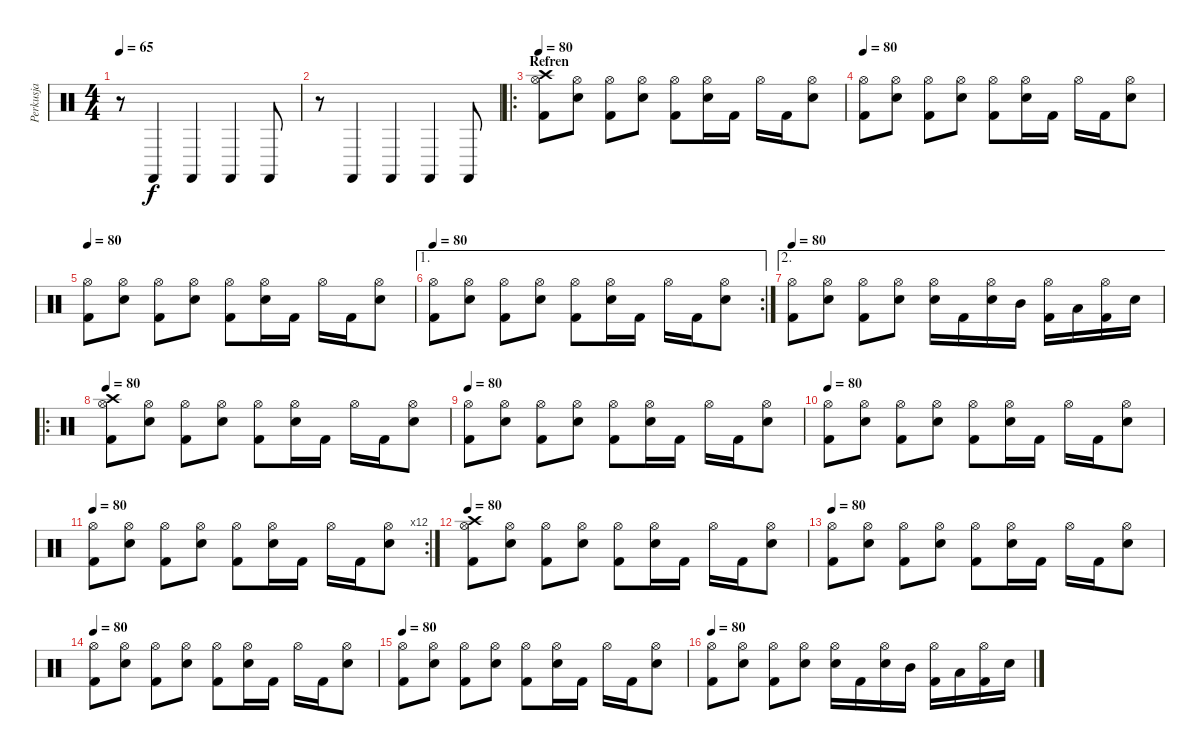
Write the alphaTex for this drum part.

\track ("Perkusja" "Perkusja") {instrument percussion}
\staff {score}
\articulation defaults
\ts (4 4)
\tempo 65
\clef neutral
\ks c
r.8{dy f} "Castanets (hit)".4 "Castanets (hit)".4 "Castanets (hit)".4 "Castanets (hit)".8 |
r.8 "Castanets (hit)".4 "Castanets (hit)".4 "Castanets (hit)".4 "Castanets (hit)".8 |
\ro
\section ("" "Refren")
\tempo 80
("Hi-Hat (open)" "Kick (hit) 2" "Crash high (hit)").8 ("Hi-Hat (open)" "Electric Snare (hit)").8 ("Hi-Hat (open)" "Kick (hit) 2").8 ("Hi-Hat (open)" "Electric Snare (hit)").8 ("Hi-Hat (open)" "Kick (hit) 2").8 ("Hi-Hat (open)" "Electric Snare (hit)").16 "Kick (hit) 2".16 "Hi-Hat (open)".16 "Kick (hit) 2".16 ("Hi-Hat (open)" "Electric Snare (hit)").8 |
\tempo 80
("Hi-Hat (open)" "Kick (hit) 2").8 ("Hi-Hat (open)" "Electric Snare (hit)").8 ("Hi-Hat (open)" "Kick (hit) 2").8 ("Hi-Hat (open)" "Electric Snare (hit)").8 ("Hi-Hat (open)" "Kick (hit) 2").8 ("Hi-Hat (open)" "Electric Snare (hit)").16 "Kick (hit) 2".16 "Hi-Hat (open)".16 "Kick (hit) 2".16 ("Hi-Hat (open)" "Electric Snare (hit)").8 |
\tempo 80
("Hi-Hat (open)" "Kick (hit) 2").8 ("Hi-Hat (open)" "Electric Snare (hit)").8 ("Hi-Hat (open)" "Kick (hit) 2").8 ("Hi-Hat (open)" "Electric Snare (hit)").8 ("Hi-Hat (open)" "Kick (hit) 2").8 ("Hi-Hat (open)" "Electric Snare (hit)").16 "Kick (hit) 2".16 "Hi-Hat (open)".16 "Kick (hit) 2".16 ("Hi-Hat (open)" "Electric Snare (hit)").8 |
\ae 1
\rc 2
\tempo 80
("Hi-Hat (open)" "Kick (hit) 2").8 ("Hi-Hat (open)" "Electric Snare (hit)").8 ("Hi-Hat (open)" "Kick (hit) 2").8 ("Hi-Hat (open)" "Electric Snare (hit)").8 ("Hi-Hat (open)" "Kick (hit) 2").8 ("Hi-Hat (open)" "Electric Snare (hit)").16 "Kick (hit) 2".16 "Hi-Hat (open)".16 "Kick (hit) 2".16 ("Hi-Hat (open)" "Electric Snare (hit)").8 |
\ae 2
\tempo 80
("Hi-Hat (open)" "Kick (hit) 2").8 ("Hi-Hat (open)" "Electric Snare (hit)").8 ("Hi-Hat (open)" "Kick (hit) 2").8 ("Hi-Hat (open)" "Electric Snare (hit)").8 ("Hi-Hat (open)" "Electric Snare (hit)").16 "Kick (hit) 2".16 ("Hi-Hat (open)" "Electric Snare (hit)").16 "Mid Tom (hit)".16 ("Hi-Hat (open)" "Kick (hit) 2").16 "Low Tom (hit)".16 ("Hi-Hat (open)" "Kick (hit) 2").16 "Electric Snare (hit)".16 |
\ro
\tempo 80
("Hi-Hat (open)" "Kick (hit) 2" "Crash high (hit)").8 ("Hi-Hat (open)" "Electric Snare (hit)").8 ("Hi-Hat (open)" "Kick (hit) 2").8 ("Hi-Hat (open)" "Electric Snare (hit)").8 ("Hi-Hat (open)" "Kick (hit) 2").8 ("Hi-Hat (open)" "Electric Snare (hit)").16 "Kick (hit) 2".16 "Hi-Hat (open)".16 "Kick (hit) 2".16 ("Hi-Hat (open)" "Electric Snare (hit)").8 |
\tempo 80
("Hi-Hat (open)" "Kick (hit) 2").8 ("Hi-Hat (open)" "Electric Snare (hit)").8 ("Hi-Hat (open)" "Kick (hit) 2").8 ("Hi-Hat (open)" "Electric Snare (hit)").8 ("Hi-Hat (open)" "Kick (hit) 2").8 ("Hi-Hat (open)" "Electric Snare (hit)").16 "Kick (hit) 2".16 "Hi-Hat (open)".16 "Kick (hit) 2".16 ("Hi-Hat (open)" "Electric Snare (hit)").8 |
\tempo 80
("Hi-Hat (open)" "Kick (hit) 2").8 ("Hi-Hat (open)" "Electric Snare (hit)").8 ("Hi-Hat (open)" "Kick (hit) 2").8 ("Hi-Hat (open)" "Electric Snare (hit)").8 ("Hi-Hat (open)" "Kick (hit) 2").8 ("Hi-Hat (open)" "Electric Snare (hit)").16 "Kick (hit) 2".16 "Hi-Hat (open)".16 "Kick (hit) 2".16 ("Hi-Hat (open)" "Electric Snare (hit)").8 |
\rc 12
\tempo 80
("Hi-Hat (open)" "Kick (hit) 2").8 ("Hi-Hat (open)" "Electric Snare (hit)").8 ("Hi-Hat (open)" "Kick (hit) 2").8 ("Hi-Hat (open)" "Electric Snare (hit)").8 ("Hi-Hat (open)" "Kick (hit) 2").8 ("Hi-Hat (open)" "Electric Snare (hit)").16 "Kick (hit) 2".16 "Hi-Hat (open)".16 "Kick (hit) 2".16 ("Hi-Hat (open)" "Electric Snare (hit)").8 |
\tempo 80
("Hi-Hat (open)" "Kick (hit) 2" "Crash high (hit)").8 ("Hi-Hat (open)" "Electric Snare (hit)").8 ("Hi-Hat (open)" "Kick (hit) 2").8 ("Hi-Hat (open)" "Electric Snare (hit)").8 ("Hi-Hat (open)" "Kick (hit) 2").8 ("Hi-Hat (open)" "Electric Snare (hit)").16 "Kick (hit) 2".16 "Hi-Hat (open)".16 "Kick (hit) 2".16 ("Hi-Hat (open)" "Electric Snare (hit)").8 |
\tempo 80
("Hi-Hat (open)" "Kick (hit) 2").8 ("Hi-Hat (open)" "Electric Snare (hit)").8 ("Hi-Hat (open)" "Kick (hit) 2").8 ("Hi-Hat (open)" "Electric Snare (hit)").8 ("Hi-Hat (open)" "Kick (hit) 2").8 ("Hi-Hat (open)" "Electric Snare (hit)").16 "Kick (hit) 2".16 "Hi-Hat (open)".16 "Kick (hit) 2".16 ("Hi-Hat (open)" "Electric Snare (hit)").8 |
\tempo 80
("Hi-Hat (open)" "Kick (hit) 2").8 ("Hi-Hat (open)" "Electric Snare (hit)").8 ("Hi-Hat (open)" "Kick (hit) 2").8 ("Hi-Hat (open)" "Electric Snare (hit)").8 ("Hi-Hat (open)" "Kick (hit) 2").8 ("Hi-Hat (open)" "Electric Snare (hit)").16 "Kick (hit) 2".16 "Hi-Hat (open)".16 "Kick (hit) 2".16 ("Hi-Hat (open)" "Electric Snare (hit)").8 |
\tempo 80
("Hi-Hat (open)" "Kick (hit) 2").8 ("Hi-Hat (open)" "Electric Snare (hit)").8 ("Hi-Hat (open)" "Kick (hit) 2").8 ("Hi-Hat (open)" "Electric Snare (hit)").8 ("Hi-Hat (open)" "Kick (hit) 2").8 ("Hi-Hat (open)" "Electric Snare (hit)").16 "Kick (hit) 2".16 "Hi-Hat (open)".16 "Kick (hit) 2".16 ("Hi-Hat (open)" "Electric Snare (hit)").8 |
\tempo 80
("Hi-Hat (open)" "Kick (hit) 2").8 ("Hi-Hat (open)" "Electric Snare (hit)").8 ("Hi-Hat (open)" "Kick (hit) 2").8 ("Hi-Hat (open)" "Electric Snare (hit)").8 ("Hi-Hat (open)" "Electric Snare (hit)").16 "Kick (hit) 2".16 ("Hi-Hat (open)" "Electric Snare (hit)").16 "Mid Tom (hit)".16 ("Hi-Hat (open)" "Kick (hit) 2").16 "Low Tom (hit)".16 ("Hi-Hat (open)" "Kick (hit) 2").16 "Electric Snare (hit)".16
